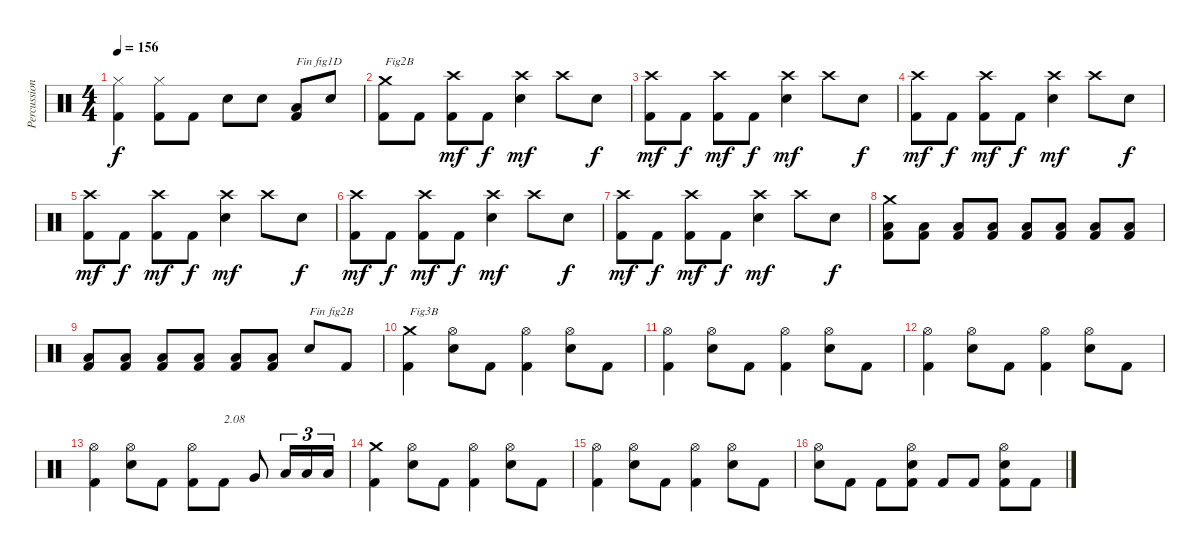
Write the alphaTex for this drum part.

\track ("Percussions" "Percussion") {instrument percussion}
\staff {score}
\articulation defaults
\ts (4 4)
\tempo 156
\clef neutral
\ks c
("Kick (hit) 2" "Hi-Hat (closed)").4{dy f} ("Kick (hit) 2" "Hi-Hat (closed)").8 "Kick (hit) 2".8 "Electric Snare (hit)".8 "Electric Snare (hit)".8 ("Kick (hit) 2" "Low Floor Tom (hit)").8{txt "Fin fig1D"} "Electric Snare (hit)".8 |
("Kick (hit) 2" "Crash medium (hit)").8{txt "Fig2B"} "Kick (hit) 2".8 ("Kick (hit) 2" "Crash high (hit)").8{dy mf} "Kick (hit) 2".8{dy f} ("Electric Snare (hit)" "Crash high (hit)").4{dy mf} "Crash high (hit)".8 "Electric Snare (hit)".8{dy f} |
("Kick (hit) 2" "Crash high (hit)").8{dy mf} "Kick (hit) 2".8{dy f} ("Kick (hit) 2" "Crash high (hit)").8{dy mf} "Kick (hit) 2".8{dy f} ("Electric Snare (hit)" "Crash high (hit)").4{dy mf} "Crash high (hit)".8 "Electric Snare (hit)".8{dy f} |
("Kick (hit) 2" "Crash high (hit)").8{dy mf} "Kick (hit) 2".8{dy f} ("Kick (hit) 2" "Crash high (hit)").8{dy mf} "Kick (hit) 2".8{dy f} ("Electric Snare (hit)" "Crash high (hit)").4{dy mf} "Crash high (hit)".8 "Electric Snare (hit)".8{dy f} |
("Kick (hit) 2" "Crash high (hit)").8{dy mf} "Kick (hit) 2".8{dy f} ("Kick (hit) 2" "Crash high (hit)").8{dy mf} "Kick (hit) 2".8{dy f} ("Electric Snare (hit)" "Crash high (hit)").4{dy mf} "Crash high (hit)".8 "Electric Snare (hit)".8{dy f} |
("Kick (hit) 2" "Crash high (hit)").8{dy mf} "Kick (hit) 2".8{dy f} ("Kick (hit) 2" "Crash high (hit)").8{dy mf} "Kick (hit) 2".8{dy f} ("Electric Snare (hit)" "Crash high (hit)").4{dy mf} "Crash high (hit)".8 "Electric Snare (hit)".8{dy f} |
("Kick (hit) 2" "Crash high (hit)").8{dy mf} "Kick (hit) 2".8{dy f} ("Kick (hit) 2" "Crash high (hit)").8{dy mf} "Kick (hit) 2".8{dy f} ("Electric Snare (hit)" "Crash high (hit)").4{dy mf} "Crash high (hit)".8 "Electric Snare (hit)".8{dy f} |
("Kick (hit) 2" "Low Floor Tom (hit)" "Crash medium (hit)").8 ("Kick (hit) 2" "Low Floor Tom (hit)").8 ("Kick (hit) 2" "Low Floor Tom (hit)").8 ("Kick (hit) 2" "Low Floor Tom (hit)").8 ("Kick (hit) 2" "Low Floor Tom (hit)").8 ("Kick (hit) 2" "Low Floor Tom (hit)").8 ("Kick (hit) 2" "Low Floor Tom (hit)").8 ("Kick (hit) 2" "Low Floor Tom (hit)").8 |
("Kick (hit) 2" "Low Floor Tom (hit)").8 ("Kick (hit) 2" "Low Floor Tom (hit)").8 ("Kick (hit) 2" "Low Floor Tom (hit)").8 ("Kick (hit) 2" "Low Floor Tom (hit)").8 ("Kick (hit) 2" "Low Floor Tom (hit)").8 ("Kick (hit) 2" "Low Floor Tom (hit)").8 "Electric Snare (hit)".8{txt "Fin fig2B"} "Kick (hit) 2".8 |
("Kick (hit) 2" "Crash medium (hit)").4{txt "Fig3B"} ("Electric Snare (hit)" "Hi-Hat (open)").8 "Kick (hit) 2".8 ("Kick (hit) 2" "Hi-Hat (open)").4 ("Electric Snare (hit)" "Hi-Hat (open)").8 "Kick (hit) 2".8 |
("Kick (hit) 2" "Hi-Hat (open)").4 ("Electric Snare (hit)" "Hi-Hat (open)").8 "Kick (hit) 2".8 ("Kick (hit) 2" "Hi-Hat (open)").4 ("Electric Snare (hit)" "Hi-Hat (open)").8 "Kick (hit) 2".8 |
("Kick (hit) 2" "Hi-Hat (open)").4 ("Electric Snare (hit)" "Hi-Hat (open)").8 "Kick (hit) 2".8 ("Kick (hit) 2" "Hi-Hat (open)").4 ("Electric Snare (hit)" "Hi-Hat (open)").8 "Kick (hit) 2".8 |
("Kick (hit) 2" "Hi-Hat (open)").4 ("Electric Snare (hit)" "Hi-Hat (open)").8 "Kick (hit) 2".8 ("Kick (hit) 2" "Hi-Hat (open)").8 "Kick (hit) 2".8{txt "2.08"} "Very Low Tom (hit)".8 "Low Floor Tom (hit)".16{tu (3 2)} "Low Floor Tom (hit)".16{tu (3 2)} "Low Floor Tom (hit)".16{tu (3 2)} |
("Kick (hit) 2" "Crash medium (hit)").4 ("Electric Snare (hit)" "Hi-Hat (open)").8 "Kick (hit) 2".8 ("Kick (hit) 2" "Hi-Hat (open)").4 ("Electric Snare (hit)" "Hi-Hat (open)").8 "Kick (hit) 2".8 |
("Kick (hit) 2" "Hi-Hat (open)").4 ("Electric Snare (hit)" "Hi-Hat (open)").8 "Kick (hit) 2".8 ("Kick (hit) 2" "Hi-Hat (open)").4 ("Electric Snare (hit)" "Hi-Hat (open)").8 "Kick (hit) 2".8 |
("Electric Snare (hit)" "Hi-Hat (open)").8 "Kick (hit) 2".8 "Kick (hit) 2".8 ("Kick (hit) 2" "Electric Snare (hit)" "Hi-Hat (open)").8 "Kick (hit) 2".8 "Kick (hit) 2".8 ("Kick (hit) 2" "Electric Snare (hit)" "Hi-Hat (open)").8 "Kick (hit) 2".8
